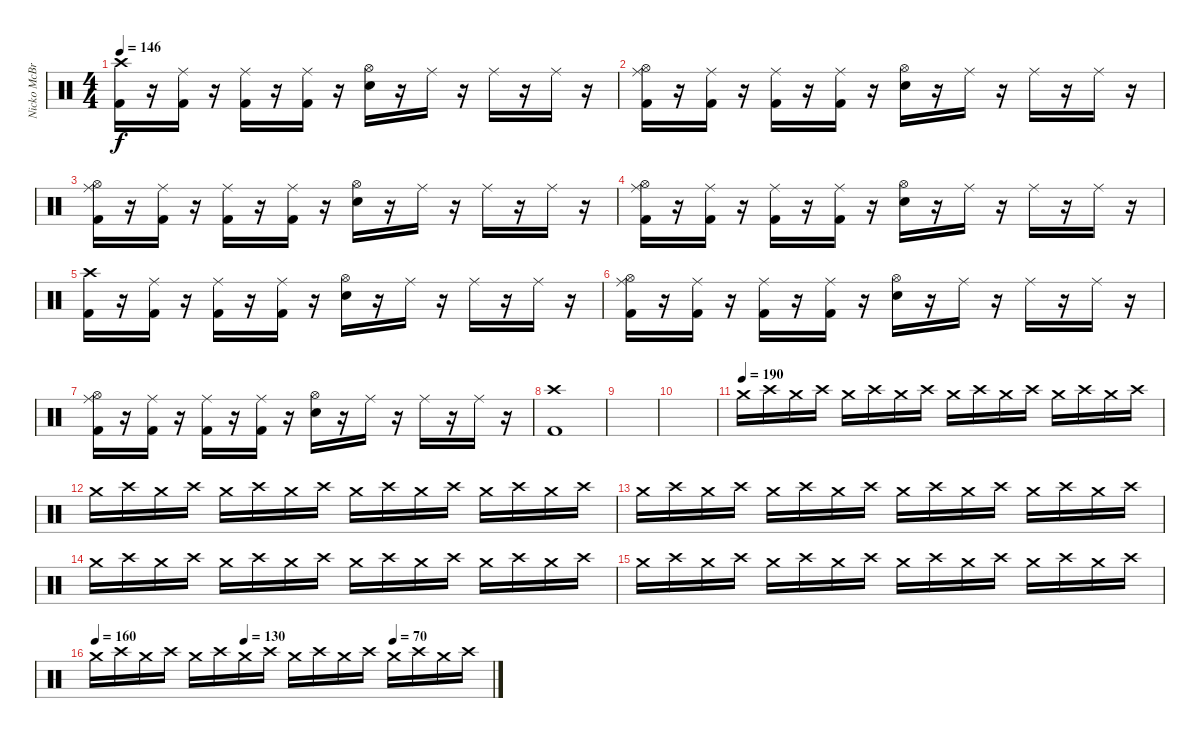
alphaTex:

\track ("Nicko McBrain" "Nicko McBr") {instrument percussion}
\staff {score}
\articulation defaults
\ts (4 4)
\tempo 146
\clef neutral
\ks c
("Crash high (hit)" "Kick (hit) 2").16{dy f} r.16 ("Ride (middle)" "Kick (hit) 2").16 r.16 ("Ride (middle)" "Kick (hit) 2").16 r.16 ("Ride (middle)" "Kick (hit) 2").16 r.16 ("Hi-Hat (open)" "Snare (hit) 2").16 r.16 "Ride (middle)".16 r.16 "Ride (middle)".16 r.16 "Ride (middle)".16 r.16 |
("Ride (middle)" "Hi-Hat (open)" "Kick (hit) 2").16 r.16 ("Ride (middle)" "Kick (hit) 2").16 r.16 ("Ride (middle)" "Kick (hit) 2").16 r.16 ("Ride (middle)" "Kick (hit) 2").16 r.16 ("Hi-Hat (open)" "Snare (hit) 2").16 r.16 "Ride (middle)".16 r.16 "Ride (middle)".16 r.16 "Ride (middle)".16 r.16 |
("Ride (middle)" "Hi-Hat (open)" "Kick (hit) 2").16 r.16 ("Ride (middle)" "Kick (hit) 2").16 r.16 ("Ride (middle)" "Kick (hit) 2").16 r.16 ("Ride (middle)" "Kick (hit) 2").16 r.16 ("Hi-Hat (open)" "Snare (hit) 2").16 r.16 "Ride (middle)".16 r.16 "Ride (middle)".16 r.16 "Ride (middle)".16 r.16 |
("Ride (middle)" "Hi-Hat (open)" "Kick (hit) 2").16 r.16 ("Ride (middle)" "Kick (hit) 2").16 r.16 ("Ride (middle)" "Kick (hit) 2").16 r.16 ("Ride (middle)" "Kick (hit) 2").16 r.16 ("Hi-Hat (open)" "Snare (hit) 2").16 r.16 "Ride (middle)".16 r.16 "Ride (middle)".16 r.16 "Ride (middle)".16 r.16 |
("Crash high (hit)" "Kick (hit) 2").16 r.16 ("Ride (middle)" "Kick (hit) 2").16 r.16 ("Ride (middle)" "Kick (hit) 2").16 r.16 ("Ride (middle)" "Kick (hit) 2").16 r.16 ("Hi-Hat (open)" "Snare (hit) 2").16 r.16 "Ride (middle)".16 r.16 "Ride (middle)".16 r.16 "Ride (middle)".16 r.16 |
("Ride (middle)" "Hi-Hat (open)" "Kick (hit) 2").16 r.16 ("Ride (middle)" "Kick (hit) 2").16 r.16 ("Ride (middle)" "Kick (hit) 2").16 r.16 ("Ride (middle)" "Kick (hit) 2").16 r.16 ("Hi-Hat (open)" "Snare (hit) 2").16 r.16 "Ride (middle)".16 r.16 "Ride (middle)".16 r.16 "Ride (middle)".16 r.16 |
("Ride (middle)" "Hi-Hat (open)" "Kick (hit) 2").16 r.16 ("Ride (middle)" "Kick (hit) 2").16 r.16 ("Ride (middle)" "Kick (hit) 2").16 r.16 ("Ride (middle)" "Kick (hit) 2").16 r.16 ("Hi-Hat (open)" "Snare (hit) 2").16 r.16 "Ride (middle)".16 r.16 "Ride (middle)".16 r.16 "Ride (middle)".16 r.16 |
("Crash high (hit)" "Kick (hit) 2").1 |
|
|
\tempo (190)
"Crash medium (hit)".16 "Crash high (hit)".16 "Crash medium (hit)".16 "Crash high (hit)".16 "Crash medium (hit)".16 "Crash high (hit)".16 "Crash medium (hit)".16 "Crash high (hit)".16 "Crash medium (hit)".16 "Crash high (hit)".16 "Crash medium (hit)".16 "Crash high (hit)".16 "Crash medium (hit)".16 "Crash high (hit)".16 "Crash medium (hit)".16 "Crash high (hit)".16 |
"Crash medium (hit)".16 "Crash high (hit)".16 "Crash medium (hit)".16 "Crash high (hit)".16 "Crash medium (hit)".16 "Crash high (hit)".16 "Crash medium (hit)".16 "Crash high (hit)".16 "Crash medium (hit)".16 "Crash high (hit)".16 "Crash medium (hit)".16 "Crash high (hit)".16 "Crash medium (hit)".16 "Crash high (hit)".16 "Crash medium (hit)".16 "Crash high (hit)".16 |
"Crash medium (hit)".16 "Crash high (hit)".16 "Crash medium (hit)".16 "Crash high (hit)".16 "Crash medium (hit)".16 "Crash high (hit)".16 "Crash medium (hit)".16 "Crash high (hit)".16 "Crash medium (hit)".16 "Crash high (hit)".16 "Crash medium (hit)".16 "Crash high (hit)".16 "Crash medium (hit)".16 "Crash high (hit)".16 "Crash medium (hit)".16 "Crash high (hit)".16 |
"Crash medium (hit)".16 "Crash high (hit)".16 "Crash medium (hit)".16 "Crash high (hit)".16 "Crash medium (hit)".16 "Crash high (hit)".16 "Crash medium (hit)".16 "Crash high (hit)".16 "Crash medium (hit)".16 "Crash high (hit)".16 "Crash medium (hit)".16 "Crash high (hit)".16 "Crash medium (hit)".16 "Crash high (hit)".16 "Crash medium (hit)".16 "Crash high (hit)".16 |
"Crash medium (hit)".16 "Crash high (hit)".16 "Crash medium (hit)".16 "Crash high (hit)".16 "Crash medium (hit)".16 "Crash high (hit)".16 "Crash medium (hit)".16 "Crash high (hit)".16 "Crash medium (hit)".16 "Crash high (hit)".16 "Crash medium (hit)".16 "Crash high (hit)".16 "Crash medium (hit)".16 "Crash high (hit)".16 "Crash medium (hit)".16 "Crash high (hit)".16 |
\tempo 160
\tempo (130 0.375)
\tempo (70 0.75)
"Crash medium (hit)".16 "Crash high (hit)".16 "Crash medium (hit)".16 "Crash high (hit)".16 "Crash medium (hit)".16 "Crash high (hit)".16 "Crash medium (hit)".16 "Crash high (hit)".16 "Crash medium (hit)".16 "Crash high (hit)".16 "Crash medium (hit)".16 "Crash high (hit)".16 "Crash medium (hit)".16 "Crash high (hit)".16 "Crash medium (hit)".16 "Crash high (hit)".16
